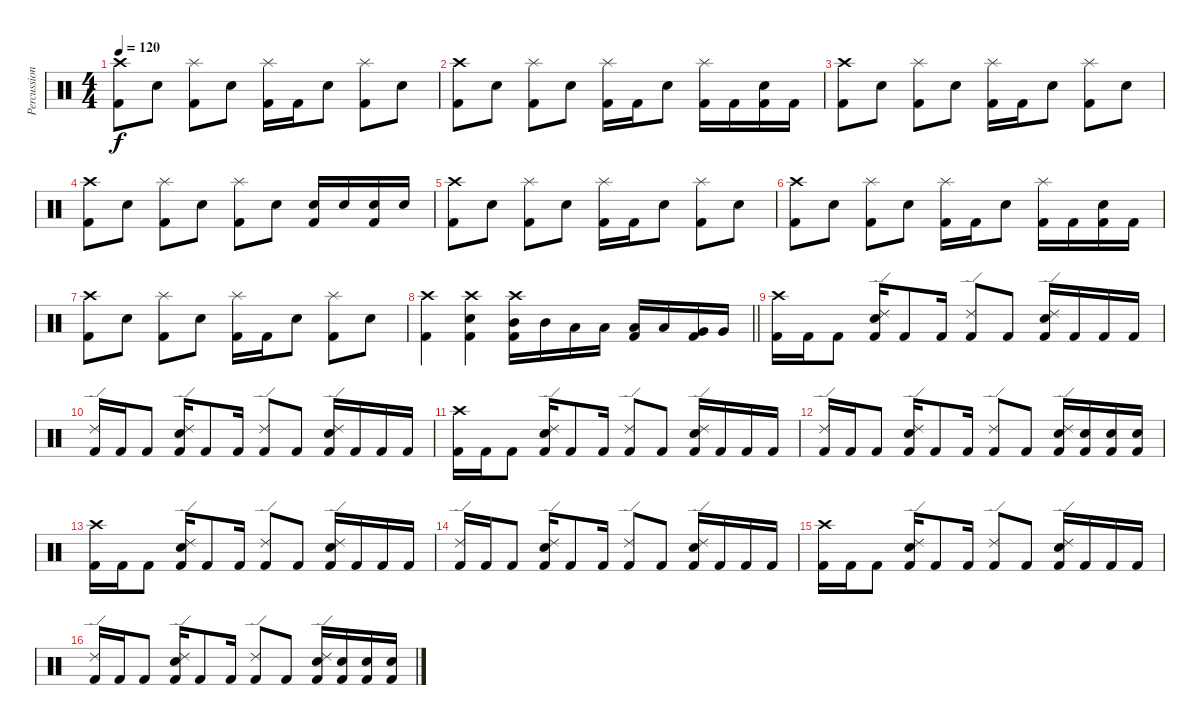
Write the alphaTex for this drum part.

\track ("Percussion" "Percussion") {instrument percussion}
\staff {score}
\articulation defaults
\ts (4 4)
\tempo 120
\clef neutral
\ks c
("Crash high (hit)" "Kick (hit) 2").8{dy f} "Electric Snare (hit)".8 ("Splash (hit)" "Kick (hit) 2").8 "Electric Snare (hit)".8 ("Splash (hit)" "Kick (hit) 2").16 "Kick (hit) 2".16 "Electric Snare (hit)".8 ("Splash (hit)" "Kick (hit) 2").8 "Electric Snare (hit)".8 |
("Crash high (hit)" "Kick (hit) 2").8 "Electric Snare (hit)".8 ("Splash (hit)" "Kick (hit) 2").8 "Electric Snare (hit)".8 ("Splash (hit)" "Kick (hit) 2").16 "Kick (hit) 2".16 "Electric Snare (hit)".8 ("Splash (hit)" "Kick (hit) 2").16 "Kick (hit) 2".16 ("Electric Snare (hit)" "Kick (hit) 2").16 "Kick (hit) 2".16 |
("Crash high (hit)" "Kick (hit) 2").8 "Electric Snare (hit)".8 ("Splash (hit)" "Kick (hit) 2").8 "Electric Snare (hit)".8 ("Splash (hit)" "Kick (hit) 2").16 "Kick (hit) 2".16 "Electric Snare (hit)".8 ("Splash (hit)" "Kick (hit) 2").8 "Electric Snare (hit)".8 |
("Crash high (hit)" "Kick (hit) 2").8 "Electric Snare (hit)".8 ("Splash (hit)" "Kick (hit) 2").8 "Electric Snare (hit)".8 ("Splash (hit)" "Kick (hit) 2").8 "Electric Snare (hit)".8 ("Electric Snare (hit)" "Kick (hit) 2").16 "Electric Snare (hit)".16 ("Electric Snare (hit)" "Kick (hit) 2").16 "Electric Snare (hit)".16 |
("Crash high (hit)" "Kick (hit) 2").8 "Electric Snare (hit)".8 ("Splash (hit)" "Kick (hit) 2").8 "Electric Snare (hit)".8 ("Splash (hit)" "Kick (hit) 2").16 "Kick (hit) 2".16 "Electric Snare (hit)".8 ("Splash (hit)" "Kick (hit) 2").8 "Electric Snare (hit)".8 |
("Crash high (hit)" "Kick (hit) 2").8 "Electric Snare (hit)".8 ("Splash (hit)" "Kick (hit) 2").8 "Electric Snare (hit)".8 ("Splash (hit)" "Kick (hit) 2").16 "Kick (hit) 2".16 "Electric Snare (hit)".8 ("Splash (hit)" "Kick (hit) 2").16 "Kick (hit) 2".16 ("Electric Snare (hit)" "Kick (hit) 2").16 "Kick (hit) 2".16 |
("Crash high (hit)" "Kick (hit) 2").8 "Electric Snare (hit)".8 ("Splash (hit)" "Kick (hit) 2").8 "Electric Snare (hit)".8 ("Splash (hit)" "Kick (hit) 2").16 "Kick (hit) 2".16 "Electric Snare (hit)".8 ("Splash (hit)" "Kick (hit) 2").8 "Electric Snare (hit)".8 |
\barLineRight lightlight
("Crash high (hit)" "Kick (hit) 2").4 ("Crash high (hit)" "Electric Snare (hit)" "Kick (hit) 2").4 ("Crash high (hit)" "Mid Tom (hit)" "Kick (hit) 2").16 "Mid Tom (hit)".16 "Low Tom (hit)".16 "Low Tom (hit)".16 ("Low Tom (hit)" "Kick (hit) 2").16 "Low Tom (hit)".16 ("Very Low Tom (hit)" "Kick (hit) 2").16 "Very Low Tom (hit)".16 |
("Crash high (hit)" "Kick (hit) 2").16 "Kick (hit) 2".16 "Kick (hit) 2".8 ("Ride (edge) 2" "Electric Snare (hit)" "Kick (hit) 2").16 "Kick (hit) 2".8 "Kick (hit) 2".16 ("Ride (edge) 2" "Kick (hit) 2").8 "Kick (hit) 2".8 ("Ride (edge) 2" "Electric Snare (hit)" "Kick (hit) 2").16 "Kick (hit) 2".16 "Kick (hit) 2".16 "Kick (hit) 2".16 |
("Ride (edge) 2" "Kick (hit) 2").16 "Kick (hit) 2".16 "Kick (hit) 2".8 ("Ride (edge) 2" "Electric Snare (hit)" "Kick (hit) 2").16 "Kick (hit) 2".8 "Kick (hit) 2".16 ("Ride (edge) 2" "Kick (hit) 2").8 "Kick (hit) 2".8 ("Ride (edge) 2" "Electric Snare (hit)" "Kick (hit) 2").16 "Kick (hit) 2".16 "Kick (hit) 2".16 "Kick (hit) 2".16 |
("Crash high (hit)" "Kick (hit) 2").16 "Kick (hit) 2".16 "Kick (hit) 2".8 ("Ride (edge) 2" "Electric Snare (hit)" "Kick (hit) 2").16 "Kick (hit) 2".8 "Kick (hit) 2".16 ("Ride (edge) 2" "Kick (hit) 2").8 "Kick (hit) 2".8 ("Ride (edge) 2" "Electric Snare (hit)" "Kick (hit) 2").16 "Kick (hit) 2".16 "Kick (hit) 2".16 "Kick (hit) 2".16 |
("Ride (edge) 2" "Kick (hit) 2").16 "Kick (hit) 2".16 "Kick (hit) 2".8 ("Ride (edge) 2" "Electric Snare (hit)" "Kick (hit) 2").16 "Kick (hit) 2".8 "Kick (hit) 2".16 ("Ride (edge) 2" "Kick (hit) 2").8 "Kick (hit) 2".8 ("Ride (edge) 2" "Electric Snare (hit)" "Kick (hit) 2").16 ("Electric Snare (hit)" "Kick (hit) 2").16 ("Electric Snare (hit)" "Kick (hit) 2").16 ("Electric Snare (hit)" "Kick (hit) 2").16 |
("Crash high (hit)" "Kick (hit) 2").16 "Kick (hit) 2".16 "Kick (hit) 2".8 ("Ride (edge) 2" "Electric Snare (hit)" "Kick (hit) 2").16 "Kick (hit) 2".8 "Kick (hit) 2".16 ("Ride (edge) 2" "Kick (hit) 2").8 "Kick (hit) 2".8 ("Ride (edge) 2" "Electric Snare (hit)" "Kick (hit) 2").16 "Kick (hit) 2".16 "Kick (hit) 2".16 "Kick (hit) 2".16 |
("Ride (edge) 2" "Kick (hit) 2").16 "Kick (hit) 2".16 "Kick (hit) 2".8 ("Ride (edge) 2" "Electric Snare (hit)" "Kick (hit) 2").16 "Kick (hit) 2".8 "Kick (hit) 2".16 ("Ride (edge) 2" "Kick (hit) 2").8 "Kick (hit) 2".8 ("Ride (edge) 2" "Electric Snare (hit)" "Kick (hit) 2").16 "Kick (hit) 2".16 "Kick (hit) 2".16 "Kick (hit) 2".16 |
("Crash high (hit)" "Kick (hit) 2").16 "Kick (hit) 2".16 "Kick (hit) 2".8 ("Ride (edge) 2" "Electric Snare (hit)" "Kick (hit) 2").16 "Kick (hit) 2".8 "Kick (hit) 2".16 ("Ride (edge) 2" "Kick (hit) 2").8 "Kick (hit) 2".8 ("Ride (edge) 2" "Electric Snare (hit)" "Kick (hit) 2").16 "Kick (hit) 2".16 "Kick (hit) 2".16 "Kick (hit) 2".16 |
("Ride (edge) 2" "Kick (hit) 2").16 "Kick (hit) 2".16 "Kick (hit) 2".8 ("Ride (edge) 2" "Electric Snare (hit)" "Kick (hit) 2").16 "Kick (hit) 2".8 "Kick (hit) 2".16 ("Ride (edge) 2" "Kick (hit) 2").8 "Kick (hit) 2".8 ("Ride (edge) 2" "Electric Snare (hit)" "Kick (hit) 2").16 ("Electric Snare (hit)" "Kick (hit) 2").16 ("Electric Snare (hit)" "Kick (hit) 2").16 ("Electric Snare (hit)" "Kick (hit) 2").16
